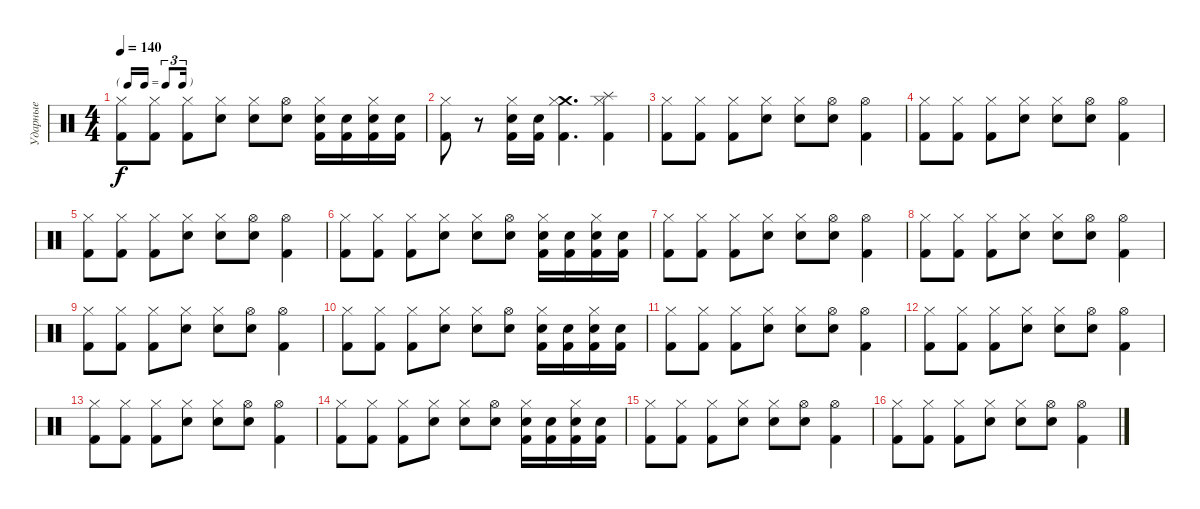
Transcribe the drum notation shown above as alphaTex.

\track ("Ударные" "Ударные") {instrument percussion}
\staff {score}
\articulation defaults
\ts (4 4)
\tf triplet16th
\tempo 140
\clef neutral
\ks c
("Hi-Hat (closed)" "Kick (hit) 2").8{dy f} ("Hi-Hat (closed)" "Kick (hit) 2").8 ("Hi-Hat (closed)" "Kick (hit) 2").8 ("Hi-Hat (closed)" "Snare (hit) 2").8 ("Hi-Hat (closed)" "Snare (hit) 2").8 ("Hi-Hat (open)" "Snare (hit) 2").8 ("Snare (hit) 2" "Hi-Hat (closed)" "Kick (hit) 2").16 ("Snare (hit) 2" "Kick (hit) 2").16 ("Snare (hit) 2" "Hi-Hat (closed)" "Kick (hit) 2").16 ("Snare (hit) 2" "Kick (hit) 2").16 |
("Hi-Hat (closed)" "Kick (hit) 2").8 r.8 ("Snare (hit) 2" "Hi-Hat (closed)" "Kick (hit) 2").16 ("Snare (hit) 2" "Kick (hit) 2").16 ("Crash medium (hit)" "Hi-Hat (closed)" "Kick (hit) 2").4{d} ("Splash (hit)" "Hi-Hat (closed)" "Kick (hit) 2").4 |
("Hi-Hat (closed)" "Kick (hit) 2").8 ("Hi-Hat (closed)" "Kick (hit) 2").8 ("Hi-Hat (closed)" "Kick (hit) 2").8 ("Hi-Hat (closed)" "Snare (hit) 2").8 ("Hi-Hat (closed)" "Snare (hit) 2").8 ("Hi-Hat (open)" "Snare (hit) 2").8 ("Hi-Hat (open)" "Kick (hit) 2").4 |
("Hi-Hat (closed)" "Kick (hit) 2").8 ("Hi-Hat (closed)" "Kick (hit) 2").8 ("Hi-Hat (closed)" "Kick (hit) 2").8 ("Hi-Hat (closed)" "Snare (hit) 2").8 ("Hi-Hat (closed)" "Snare (hit) 2").8 ("Hi-Hat (open)" "Snare (hit) 2").8 ("Hi-Hat (open)" "Kick (hit) 2").4 |
("Hi-Hat (closed)" "Kick (hit) 2").8 ("Hi-Hat (closed)" "Kick (hit) 2").8 ("Hi-Hat (closed)" "Kick (hit) 2").8 ("Hi-Hat (closed)" "Snare (hit) 2").8 ("Hi-Hat (closed)" "Snare (hit) 2").8 ("Hi-Hat (open)" "Snare (hit) 2").8 ("Hi-Hat (open)" "Kick (hit) 2").4 |
("Hi-Hat (closed)" "Kick (hit) 2").8 ("Hi-Hat (closed)" "Kick (hit) 2").8 ("Hi-Hat (closed)" "Kick (hit) 2").8 ("Hi-Hat (closed)" "Snare (hit) 2").8 ("Hi-Hat (closed)" "Snare (hit) 2").8 ("Hi-Hat (open)" "Snare (hit) 2").8 ("Snare (hit) 2" "Hi-Hat (closed)" "Kick (hit) 2").16 ("Snare (hit) 2" "Kick (hit) 2").16 ("Snare (hit) 2" "Hi-Hat (closed)" "Kick (hit) 2").16 ("Snare (hit) 2" "Kick (hit) 2").16 |
("Hi-Hat (closed)" "Kick (hit) 2").8 ("Hi-Hat (closed)" "Kick (hit) 2").8 ("Hi-Hat (closed)" "Kick (hit) 2").8 ("Hi-Hat (closed)" "Snare (hit) 2").8 ("Hi-Hat (closed)" "Snare (hit) 2").8 ("Hi-Hat (open)" "Snare (hit) 2").8 ("Hi-Hat (open)" "Kick (hit) 2").4 |
("Hi-Hat (closed)" "Kick (hit) 2").8 ("Hi-Hat (closed)" "Kick (hit) 2").8 ("Hi-Hat (closed)" "Kick (hit) 2").8 ("Hi-Hat (closed)" "Snare (hit) 2").8 ("Hi-Hat (closed)" "Snare (hit) 2").8 ("Hi-Hat (open)" "Snare (hit) 2").8 ("Hi-Hat (open)" "Kick (hit) 2").4 |
("Hi-Hat (closed)" "Kick (hit) 2").8 ("Hi-Hat (closed)" "Kick (hit) 2").8 ("Hi-Hat (closed)" "Kick (hit) 2").8 ("Hi-Hat (closed)" "Snare (hit) 2").8 ("Hi-Hat (closed)" "Snare (hit) 2").8 ("Hi-Hat (open)" "Snare (hit) 2").8 ("Hi-Hat (open)" "Kick (hit) 2").4 |
("Hi-Hat (closed)" "Kick (hit) 2").8 ("Hi-Hat (closed)" "Kick (hit) 2").8 ("Hi-Hat (closed)" "Kick (hit) 2").8 ("Hi-Hat (closed)" "Snare (hit) 2").8 ("Hi-Hat (closed)" "Snare (hit) 2").8 ("Hi-Hat (open)" "Snare (hit) 2").8 ("Snare (hit) 2" "Hi-Hat (closed)" "Kick (hit) 2").16 ("Snare (hit) 2" "Kick (hit) 2").16 ("Snare (hit) 2" "Hi-Hat (closed)" "Kick (hit) 2").16 ("Snare (hit) 2" "Kick (hit) 2").16 |
("Hi-Hat (closed)" "Kick (hit) 2").8 ("Hi-Hat (closed)" "Kick (hit) 2").8 ("Hi-Hat (closed)" "Kick (hit) 2").8 ("Hi-Hat (closed)" "Snare (hit) 2").8 ("Hi-Hat (closed)" "Snare (hit) 2").8 ("Hi-Hat (open)" "Snare (hit) 2").8 ("Hi-Hat (open)" "Kick (hit) 2").4 |
("Hi-Hat (closed)" "Kick (hit) 2").8 ("Hi-Hat (closed)" "Kick (hit) 2").8 ("Hi-Hat (closed)" "Kick (hit) 2").8 ("Hi-Hat (closed)" "Snare (hit) 2").8 ("Hi-Hat (closed)" "Snare (hit) 2").8 ("Hi-Hat (open)" "Snare (hit) 2").8 ("Hi-Hat (open)" "Kick (hit) 2").4 |
("Hi-Hat (closed)" "Kick (hit) 2").8 ("Hi-Hat (closed)" "Kick (hit) 2").8 ("Hi-Hat (closed)" "Kick (hit) 2").8 ("Hi-Hat (closed)" "Snare (hit) 2").8 ("Hi-Hat (closed)" "Snare (hit) 2").8 ("Hi-Hat (open)" "Snare (hit) 2").8 ("Hi-Hat (open)" "Kick (hit) 2").4 |
("Hi-Hat (closed)" "Kick (hit) 2").8 ("Hi-Hat (closed)" "Kick (hit) 2").8 ("Hi-Hat (closed)" "Kick (hit) 2").8 ("Hi-Hat (closed)" "Snare (hit) 2").8 ("Hi-Hat (closed)" "Snare (hit) 2").8 ("Hi-Hat (open)" "Snare (hit) 2").8 ("Snare (hit) 2" "Hi-Hat (closed)" "Kick (hit) 2").16 ("Snare (hit) 2" "Kick (hit) 2").16 ("Snare (hit) 2" "Hi-Hat (closed)" "Kick (hit) 2").16 ("Snare (hit) 2" "Kick (hit) 2").16 |
("Hi-Hat (closed)" "Kick (hit) 2").8 ("Hi-Hat (closed)" "Kick (hit) 2").8 ("Hi-Hat (closed)" "Kick (hit) 2").8 ("Hi-Hat (closed)" "Snare (hit) 2").8 ("Hi-Hat (closed)" "Snare (hit) 2").8 ("Hi-Hat (open)" "Snare (hit) 2").8 ("Hi-Hat (open)" "Kick (hit) 2").4 |
("Hi-Hat (closed)" "Kick (hit) 2").8 ("Hi-Hat (closed)" "Kick (hit) 2").8 ("Hi-Hat (closed)" "Kick (hit) 2").8 ("Hi-Hat (closed)" "Snare (hit) 2").8 ("Hi-Hat (closed)" "Snare (hit) 2").8 ("Hi-Hat (open)" "Snare (hit) 2").8 ("Hi-Hat (open)" "Kick (hit) 2").4
